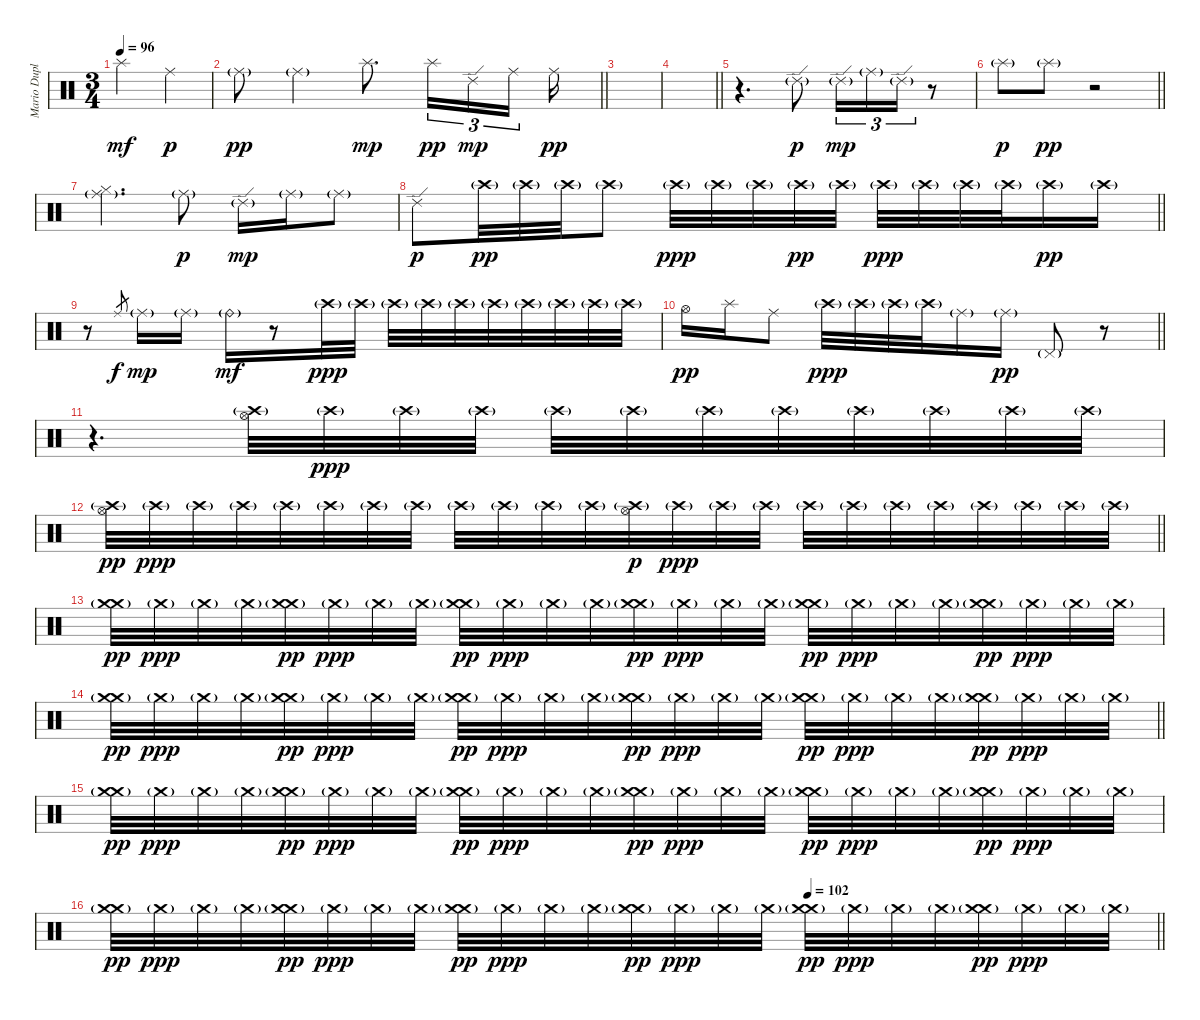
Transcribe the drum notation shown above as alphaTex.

\track ("Mario Duplantier" "Mario Dupl") {instrument percussion}
\staff {score}
\articulation defaults
\ts (3 4)
\tempo 96
\clef neutral
\ks c "Splash (hit)".2{dy mf} "Ride (middle)".4{dy p}
|
\barLineRight lightlight "Ride (middle)"{g}.8{dy pp} "Ride (middle)"{g}.4 "Splash (hit)".8{d dy mp} "Splash (hit)".16{tu (3 2) dy pp} "Ride (edge) 2".16{tu (3 2) dy mp} "Ride (middle)".16{tu (3 2) beam splitsecondary} "Ride (middle)".16{dy pp}
|
|
\barLineRight lightlight
|
r.4{d} "Ride (edge) 2"{g}.8{dy p} "Ride (edge) 2"{g}.16{tu (3 2) dy mp} "Ride (middle)"{g}.16{tu (3 2)} "Ride (edge) 2"{g}.16{tu (3 2)} r.8 |
\barLineRight lightlight "Splash (hit)"{g}.8{dy p} "Splash (hit)"{g}.8{dy pp}
r.2 |
("Ride (middle)"{g} "Hi-Hat (closed)").4{d} "Ride (middle)"{g}.8{dy p} "Ride (edge) 2"{g}.16{dy mp} "Ride (middle)"{g}.16 "Ride (middle)"{g}.8 |
\barLineRight lightlight "Ride (edge) 2".8{dy p} "Crash high (hit)"{g}.32{dy pp} "Crash high (hit)"{g}.32 "Crash high (hit)"{g}.32 "Crash high (hit)"{g}.8 "Crash high (hit)"{g}.32{dy ppp} "Crash high (hit)"{g}.32 "Crash high (hit)"{g}.32 "Crash high (hit)"{g}.32{dy pp} "Crash high (hit)"{g}.32 "Crash high (hit)"{g}.32{dy ppp} "Crash high (hit)"{g}.32 "Crash high (hit)"{g}.32 "Crash high (hit)"{g}.32 "Crash high (hit)"{g}.16{dy pp} "Crash high (hit)"{g}.16
|
r.8 "Ride (middle)".8{gr dy f} "Ride (middle)"{g}.16{dy mp} "Ride (middle)"{g}.16 "Ride (bell)"{g}.16{dy mf} r.8 "Crash high (hit)"{g}.32{dy ppp} "Crash high (hit)"{g}.32 "Crash high (hit)"{g}.32 "Crash high (hit)"{g}.32 "Crash high (hit)"{g}.32 "Crash high (hit)"{g}.32 "Crash high (hit)"{g}.32 "Crash high (hit)"{g}.32 "Crash high (hit)"{g}.32 "Crash high (hit)"{g}.32 |
\barLineRight lightlight "Hi-Hat (open)".16{dy pp} "Splash (hit)".16 "Ride (middle)".8 "Crash high (hit)"{g}.32{dy ppp} "Crash high (hit)"{g}.32 "Crash high (hit)"{g}.32 "Crash high (hit)"{g}.32 "Ride (middle)"{g}.16 "Ride (middle)"{g}.16{dy pp} "Pedal Hi-Hat (hit)"{g}.8
r.8 |
r.4{d} ("Crash high (hit)"{g} "Hi-Hat (open)").32 "Crash high (hit)"{g}.32{dy ppp} "Crash high (hit)"{g}.32 "Crash high (hit)"{g}.32 "Crash high (hit)"{g}.32 "Crash high (hit)"{g}.32 "Crash high (hit)"{g}.32 "Crash high (hit)"{g}.32 "Crash high (hit)"{g}.32 "Crash high (hit)"{g}.32 "Crash high (hit)"{g}.32 "Crash high (hit)"{g}.32 |
\barLineRight lightlight
("Crash high (hit)"{g} "Hi-Hat (open)").32{dy pp} "Crash high (hit)"{g}.32{dy ppp} "Crash high (hit)"{g}.32 "Crash high (hit)"{g}.32 "Crash high (hit)"{g}.32 "Crash high (hit)"{g}.32 "Crash high (hit)"{g}.32 "Crash high (hit)"{g}.32 "Crash high (hit)"{g}.32 "Crash high (hit)"{g}.32 "Crash high (hit)"{g}.32 "Crash high (hit)"{g}.32 ("Crash high (hit)"{g} "Hi-Hat (open)").32{dy p} "Crash high (hit)"{g}.32{dy ppp} "Crash high (hit)"{g}.32 "Crash high (hit)"{g}.32 "Crash high (hit)"{g}.32 "Crash high (hit)"{g}.32 "Crash high (hit)"{g}.32 "Crash high (hit)"{g}.32 "Crash high (hit)"{g}.32 "Crash high (hit)"{g}.32 "Crash high (hit)"{g}.32 "Crash high (hit)"{g}.32 |
("Crash medium (hit)"{g} "Crash medium (hit)"{g}).32{dy pp} "Crash medium (hit)"{g}.32{dy ppp} "Crash medium (hit)"{g}.32 "Crash medium (hit)"{g}.32 ("Crash medium (hit)"{g} "Crash medium (hit)"{g}).32{dy pp} "Crash medium (hit)"{g}.32{dy ppp} "Crash medium (hit)"{g}.32 "Crash medium (hit)"{g}.32 ("Crash medium (hit)"{g} "Crash medium (hit)"{g}).32{dy pp} "Crash medium (hit)"{g}.32{dy ppp} "Crash medium (hit)"{g}.32 "Crash medium (hit)"{g}.32 ("Crash medium (hit)"{g} "Crash medium (hit)"{g}).32{dy pp} "Crash medium (hit)"{g}.32{dy ppp} "Crash medium (hit)"{g}.32 "Crash medium (hit)"{g}.32 ("Crash medium (hit)"{g} "Crash medium (hit)"{g}).32{dy pp} "Crash medium (hit)"{g}.32{dy ppp} "Crash medium (hit)"{g}.32 "Crash medium (hit)"{g}.32 ("Crash medium (hit)"{g} "Crash medium (hit)"{g}).32{dy pp} "Crash medium (hit)"{g}.32{dy ppp} "Crash medium (hit)"{g}.32 "Crash medium (hit)"{g}.32 |
\barLineRight lightlight
("Crash medium (hit)"{g} "Crash medium (hit)"{g}).32{dy pp} "Crash medium (hit)"{g}.32{dy ppp} "Crash medium (hit)"{g}.32 "Crash medium (hit)"{g}.32 ("Crash medium (hit)"{g} "Crash medium (hit)"{g}).32{dy pp} "Crash medium (hit)"{g}.32{dy ppp} "Crash medium (hit)"{g}.32 "Crash medium (hit)"{g}.32 ("Crash medium (hit)"{g} "Crash medium (hit)"{g}).32{dy pp} "Crash medium (hit)"{g}.32{dy ppp} "Crash medium (hit)"{g}.32 "Crash medium (hit)"{g}.32 ("Crash medium (hit)"{g} "Crash medium (hit)"{g}).32{dy pp} "Crash medium (hit)"{g}.32{dy ppp} "Crash medium (hit)"{g}.32 "Crash medium (hit)"{g}.32 ("Crash medium (hit)"{g} "Crash medium (hit)"{g}).32{dy pp} "Crash medium (hit)"{g}.32{dy ppp} "Crash medium (hit)"{g}.32 "Crash medium (hit)"{g}.32 ("Crash medium (hit)"{g} "Crash medium (hit)"{g}).32{dy pp} "Crash medium (hit)"{g}.32{dy ppp} "Crash medium (hit)"{g}.32 "Crash medium (hit)"{g}.32 |
("Crash medium (hit)"{g} "Crash medium (hit)"{g}).32{dy pp} "Crash medium (hit)"{g}.32{dy ppp} "Crash medium (hit)"{g}.32 "Crash medium (hit)"{g}.32 ("Crash medium (hit)"{g} "Crash medium (hit)"{g}).32{dy pp} "Crash medium (hit)"{g}.32{dy ppp} "Crash medium (hit)"{g}.32 "Crash medium (hit)"{g}.32 ("Crash medium (hit)"{g} "Crash medium (hit)"{g}).32{dy pp} "Crash medium (hit)"{g}.32{dy ppp} "Crash medium (hit)"{g}.32 "Crash medium (hit)"{g}.32 ("Crash medium (hit)"{g} "Crash medium (hit)"{g}).32{dy pp} "Crash medium (hit)"{g}.32{dy ppp} "Crash medium (hit)"{g}.32 "Crash medium (hit)"{g}.32 ("Crash medium (hit)"{g} "Crash medium (hit)"{g}).32{dy pp} "Crash medium (hit)"{g}.32{dy ppp} "Crash medium (hit)"{g}.32 "Crash medium (hit)"{g}.32 ("Crash medium (hit)"{g} "Crash medium (hit)"{g}).32{dy pp} "Crash medium (hit)"{g}.32{dy ppp} "Crash medium (hit)"{g}.32 "Crash medium (hit)"{g}.32 |
\tempo (102 0.6666666666666666)
\barLineRight lightlight
("Crash medium (hit)"{g} "Crash medium (hit)"{g}).32{dy pp} "Crash medium (hit)"{g}.32{dy ppp} "Crash medium (hit)"{g}.32 "Crash medium (hit)"{g}.32 ("Crash medium (hit)"{g} "Crash medium (hit)"{g}).32{dy pp} "Crash medium (hit)"{g}.32{dy ppp} "Crash medium (hit)"{g}.32 "Crash medium (hit)"{g}.32 ("Crash medium (hit)"{g} "Crash medium (hit)"{g}).32{dy pp} "Crash medium (hit)"{g}.32{dy ppp} "Crash medium (hit)"{g}.32 "Crash medium (hit)"{g}.32 ("Crash medium (hit)"{g} "Crash medium (hit)"{g}).32{dy pp} "Crash medium (hit)"{g}.32{dy ppp} "Crash medium (hit)"{g}.32 "Crash medium (hit)"{g}.32 ("Crash medium (hit)"{g} "Crash medium (hit)"{g}).32{dy pp} "Crash medium (hit)"{g}.32{dy ppp} "Crash medium (hit)"{g}.32 "Crash medium (hit)"{g}.32 ("Crash medium (hit)"{g} "Crash medium (hit)"{g}).32{dy pp} "Crash medium (hit)"{g}.32{dy ppp} "Crash medium (hit)"{g}.32 "Crash medium (hit)"{g}.32
